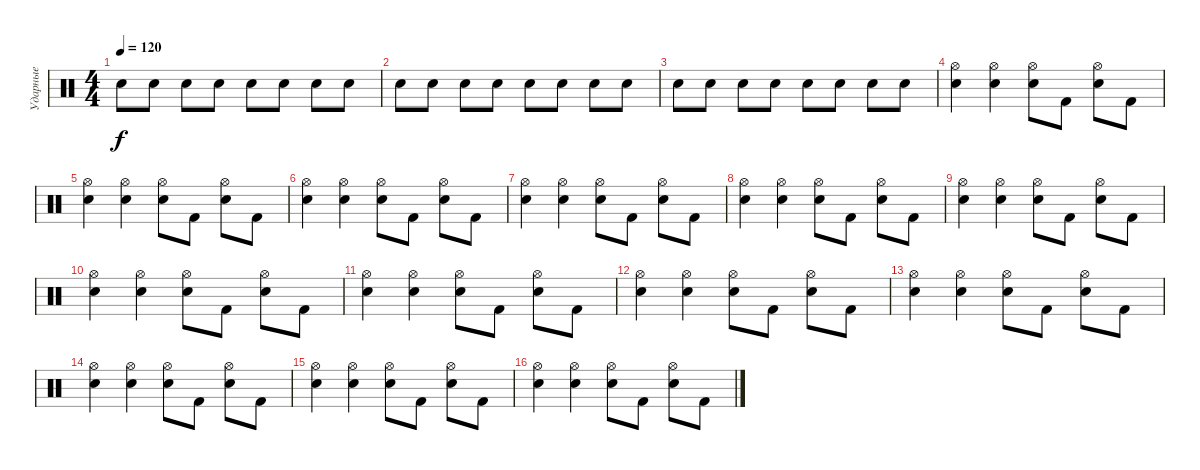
\track ("Ударные" "Ударные") {instrument percussion}
\staff {score}
\articulation defaults
\ts (4 4)
\tempo 120
\clef neutral
\ks c "Electric Snare (hit)".8{dy f} "Electric Snare (hit)".8 "Electric Snare (hit)".8 "Electric Snare (hit)".8 "Electric Snare (hit)".8 "Electric Snare (hit)".8 "Electric Snare (hit)".8 "Electric Snare (hit)".8
|
"Electric Snare (hit)".8 "Electric Snare (hit)".8 "Electric Snare (hit)".8 "Electric Snare (hit)".8 "Electric Snare (hit)".8 "Electric Snare (hit)".8 "Electric Snare (hit)".8 "Electric Snare (hit)".8 |
"Electric Snare (hit)".8 "Electric Snare (hit)".8 "Electric Snare (hit)".8 "Electric Snare (hit)".8 "Electric Snare (hit)".8 "Electric Snare (hit)".8 "Electric Snare (hit)".8 "Electric Snare (hit)".8 |
("Hi-Hat (open)" "Electric Snare (hit)").4 ("Hi-Hat (open)" "Electric Snare (hit)").4 ("Hi-Hat (open)" "Electric Snare (hit)").8 "Kick (hit) 2".8 ("Hi-Hat (open)" "Electric Snare (hit)").8 "Kick (hit) 2".8 |
("Hi-Hat (open)" "Electric Snare (hit)").4 ("Hi-Hat (open)" "Electric Snare (hit)").4 ("Hi-Hat (open)" "Electric Snare (hit)").8 "Kick (hit) 2".8 ("Hi-Hat (open)" "Electric Snare (hit)").8 "Kick (hit) 2".8 |
("Hi-Hat (open)" "Electric Snare (hit)").4 ("Hi-Hat (open)" "Electric Snare (hit)").4 ("Hi-Hat (open)" "Electric Snare (hit)").8 "Kick (hit) 2".8 ("Hi-Hat (open)" "Electric Snare (hit)").8 "Kick (hit) 2".8 |
("Hi-Hat (open)" "Electric Snare (hit)").4 ("Hi-Hat (open)" "Electric Snare (hit)").4 ("Hi-Hat (open)" "Electric Snare (hit)").8 "Kick (hit) 2".8 ("Hi-Hat (open)" "Electric Snare (hit)").8 "Kick (hit) 2".8 |
("Hi-Hat (open)" "Electric Snare (hit)").4 ("Hi-Hat (open)" "Electric Snare (hit)").4 ("Hi-Hat (open)" "Electric Snare (hit)").8 "Kick (hit) 2".8 ("Hi-Hat (open)" "Electric Snare (hit)").8 "Kick (hit) 2".8 |
("Hi-Hat (open)" "Electric Snare (hit)").4 ("Hi-Hat (open)" "Electric Snare (hit)").4 ("Hi-Hat (open)" "Electric Snare (hit)").8 "Kick (hit) 2".8 ("Hi-Hat (open)" "Electric Snare (hit)").8 "Kick (hit) 2".8 |
("Hi-Hat (open)" "Electric Snare (hit)").4 ("Hi-Hat (open)" "Electric Snare (hit)").4 ("Hi-Hat (open)" "Electric Snare (hit)").8 "Kick (hit) 2".8 ("Hi-Hat (open)" "Electric Snare (hit)").8 "Kick (hit) 2".8 |
("Hi-Hat (open)" "Electric Snare (hit)").4 ("Hi-Hat (open)" "Electric Snare (hit)").4 ("Hi-Hat (open)" "Electric Snare (hit)").8 "Kick (hit) 2".8 ("Hi-Hat (open)" "Electric Snare (hit)").8 "Kick (hit) 2".8 |
("Hi-Hat (open)" "Electric Snare (hit)").4 ("Hi-Hat (open)" "Electric Snare (hit)").4 ("Hi-Hat (open)" "Electric Snare (hit)").8 "Kick (hit) 2".8 ("Hi-Hat (open)" "Electric Snare (hit)").8 "Kick (hit) 2".8 |
("Hi-Hat (open)" "Electric Snare (hit)").4 ("Hi-Hat (open)" "Electric Snare (hit)").4 ("Hi-Hat (open)" "Electric Snare (hit)").8 "Kick (hit) 2".8 ("Hi-Hat (open)" "Electric Snare (hit)").8 "Kick (hit) 2".8 |
("Hi-Hat (open)" "Electric Snare (hit)").4 ("Hi-Hat (open)" "Electric Snare (hit)").4 ("Hi-Hat (open)" "Electric Snare (hit)").8 "Kick (hit) 2".8 ("Hi-Hat (open)" "Electric Snare (hit)").8 "Kick (hit) 2".8 |
("Hi-Hat (open)" "Electric Snare (hit)").4 ("Hi-Hat (open)" "Electric Snare (hit)").4 ("Hi-Hat (open)" "Electric Snare (hit)").8 "Kick (hit) 2".8 ("Hi-Hat (open)" "Electric Snare (hit)").8 "Kick (hit) 2".8 |
("Hi-Hat (open)" "Electric Snare (hit)").4 ("Hi-Hat (open)" "Electric Snare (hit)").4 ("Hi-Hat (open)" "Electric Snare (hit)").8 "Kick (hit) 2".8 ("Hi-Hat (open)" "Electric Snare (hit)").8 "Kick (hit) 2".8
